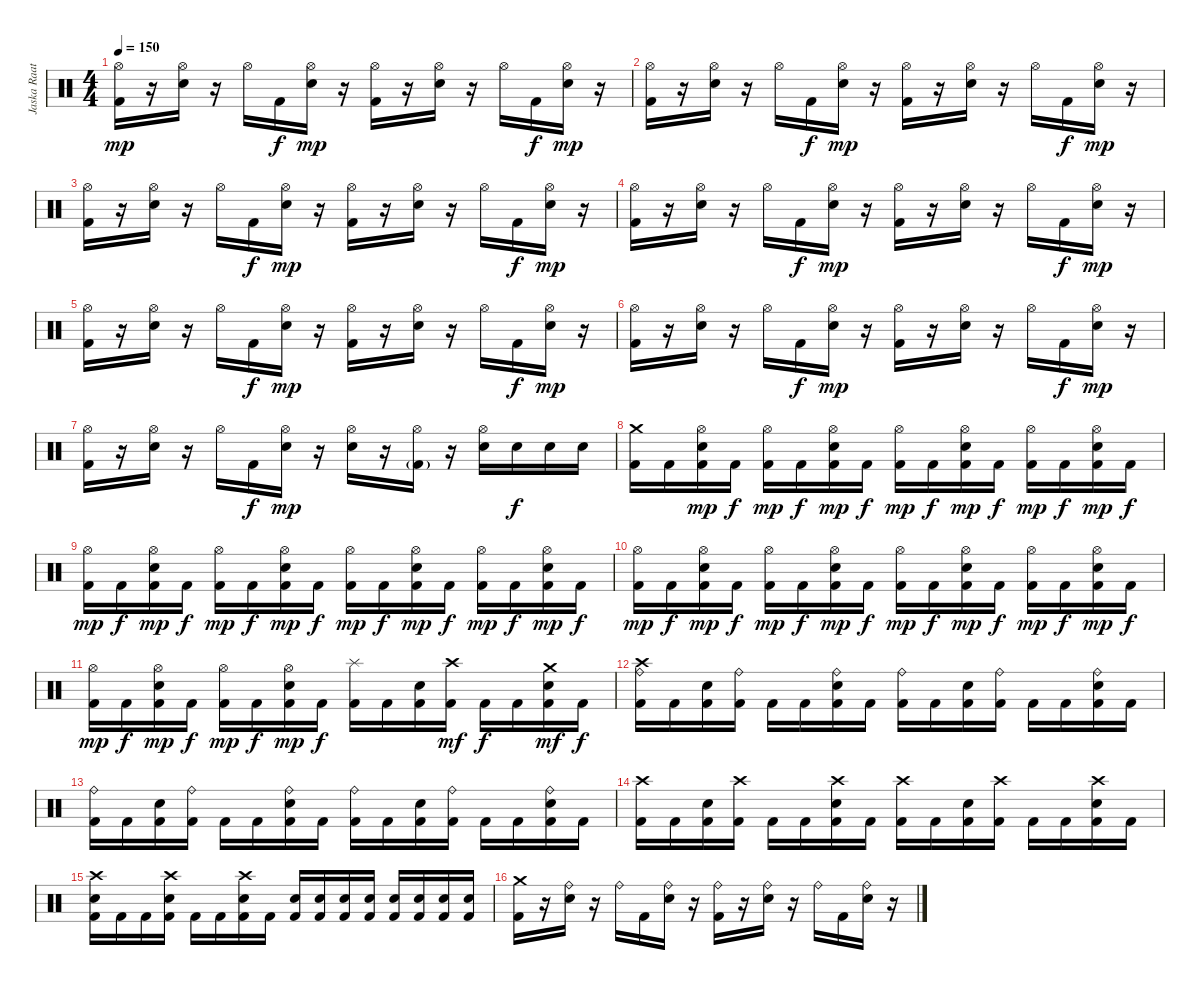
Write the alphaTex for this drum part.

\track ("Jaska Raatikainen" "Jaska Raat") {instrument percussion}
\staff {score}
\articulation defaults
\ts (4 4)
\tempo 150
\clef neutral
\ks c
("Hi-Hat (open)" "Kick (hit) 2").16{dy mp} r.16 ("Hi-Hat (open)" "Electric Snare (hit)").16 r.16 "Hi-Hat (open)".16 "Kick (hit) 2".16{dy f} ("Hi-Hat (open)" "Electric Snare (hit)").16{dy mp} r.16 ("Hi-Hat (open)" "Kick (hit) 2").16 r.16 ("Hi-Hat (open)" "Electric Snare (hit)").16 r.16 "Hi-Hat (open)".16 "Kick (hit) 2".16{dy f} ("Hi-Hat (open)" "Electric Snare (hit)").16{dy mp} r.16 |
("Hi-Hat (open)" "Kick (hit) 2").16 r.16 ("Hi-Hat (open)" "Electric Snare (hit)").16 r.16 "Hi-Hat (open)".16 "Kick (hit) 2".16{dy f} ("Hi-Hat (open)" "Electric Snare (hit)").16{dy mp} r.16 ("Hi-Hat (open)" "Kick (hit) 2").16 r.16 ("Hi-Hat (open)" "Electric Snare (hit)").16 r.16 "Hi-Hat (open)".16 "Kick (hit) 2".16{dy f} ("Hi-Hat (open)" "Electric Snare (hit)").16{dy mp} r.16 |
("Hi-Hat (open)" "Kick (hit) 2").16 r.16 ("Hi-Hat (open)" "Electric Snare (hit)").16 r.16 "Hi-Hat (open)".16 "Kick (hit) 2".16{dy f} ("Hi-Hat (open)" "Electric Snare (hit)").16{dy mp} r.16 ("Hi-Hat (open)" "Kick (hit) 2").16 r.16 ("Hi-Hat (open)" "Electric Snare (hit)").16 r.16 "Hi-Hat (open)".16 "Kick (hit) 2".16{dy f} ("Hi-Hat (open)" "Electric Snare (hit)").16{dy mp} r.16 |
("Hi-Hat (open)" "Kick (hit) 2").16 r.16 ("Hi-Hat (open)" "Electric Snare (hit)").16 r.16 "Hi-Hat (open)".16 "Kick (hit) 2".16{dy f} ("Hi-Hat (open)" "Electric Snare (hit)").16{dy mp} r.16 ("Hi-Hat (open)" "Kick (hit) 2").16 r.16 ("Hi-Hat (open)" "Electric Snare (hit)").16 r.16 "Hi-Hat (open)".16 "Kick (hit) 2".16{dy f} ("Hi-Hat (open)" "Electric Snare (hit)").16{dy mp} r.16 |
("Hi-Hat (open)" "Kick (hit) 2").16 r.16 ("Hi-Hat (open)" "Electric Snare (hit)").16 r.16 "Hi-Hat (open)".16 "Kick (hit) 2".16{dy f} ("Hi-Hat (open)" "Electric Snare (hit)").16{dy mp} r.16 ("Hi-Hat (open)" "Kick (hit) 2").16 r.16 ("Hi-Hat (open)" "Electric Snare (hit)").16 r.16 "Hi-Hat (open)".16 "Kick (hit) 2".16{dy f} ("Hi-Hat (open)" "Electric Snare (hit)").16{dy mp} r.16 |
("Hi-Hat (open)" "Kick (hit) 2").16 r.16 ("Hi-Hat (open)" "Electric Snare (hit)").16 r.16 "Hi-Hat (open)".16 "Kick (hit) 2".16{dy f} ("Hi-Hat (open)" "Electric Snare (hit)").16{dy mp} r.16 ("Hi-Hat (open)" "Kick (hit) 2").16 r.16 ("Hi-Hat (open)" "Electric Snare (hit)").16 r.16 "Hi-Hat (open)".16 "Kick (hit) 2".16{dy f} ("Hi-Hat (open)" "Electric Snare (hit)").16{dy mp} r.16 |
("Hi-Hat (open)" "Kick (hit) 2").16 r.16 ("Hi-Hat (open)" "Electric Snare (hit)").16 r.16 "Hi-Hat (open)".16 "Kick (hit) 2".16{dy f} ("Hi-Hat (open)" "Electric Snare (hit)").16{dy mp} r.16 ("Hi-Hat (open)" "Electric Snare (hit)").16 r.16 ("Hi-Hat (open)" "Kick (hit) 2"{g}).16 r.16 ("Hi-Hat (open)" "Electric Snare (hit)").16 "Electric Snare (hit)".16{dy f} "Electric Snare (hit)".16 "Electric Snare (hit)".16 |
("Crash medium (hit)" "Kick (hit) 2").16 "Kick (hit) 2".16 ("Hi-Hat (open)" "Electric Snare (hit)" "Kick (hit) 2").16{dy mp} "Kick (hit) 2".16{dy f} ("Hi-Hat (open)" "Kick (hit) 2").16{dy mp} "Kick (hit) 2".16{dy f} ("Hi-Hat (open)" "Electric Snare (hit)" "Kick (hit) 2").16{dy mp} "Kick (hit) 2".16{dy f} ("Hi-Hat (open)" "Kick (hit) 2").16{dy mp} "Kick (hit) 2".16{dy f} ("Hi-Hat (open)" "Electric Snare (hit)" "Kick (hit) 2").16{dy mp} "Kick (hit) 2".16{dy f} ("Hi-Hat (open)" "Kick (hit) 2").16{dy mp} "Kick (hit) 2".16{dy f} ("Hi-Hat (open)" "Electric Snare (hit)" "Kick (hit) 2").16{dy mp} "Kick (hit) 2".16{dy f} |
("Hi-Hat (open)" "Kick (hit) 2").16{dy mp} "Kick (hit) 2".16{dy f} ("Hi-Hat (open)" "Electric Snare (hit)" "Kick (hit) 2").16{dy mp} "Kick (hit) 2".16{dy f} ("Hi-Hat (open)" "Kick (hit) 2").16{dy mp} "Kick (hit) 2".16{dy f} ("Hi-Hat (open)" "Electric Snare (hit)" "Kick (hit) 2").16{dy mp} "Kick (hit) 2".16{dy f} ("Hi-Hat (open)" "Kick (hit) 2").16{dy mp} "Kick (hit) 2".16{dy f} ("Hi-Hat (open)" "Electric Snare (hit)" "Kick (hit) 2").16{dy mp} "Kick (hit) 2".16{dy f} ("Hi-Hat (open)" "Kick (hit) 2").16{dy mp} "Kick (hit) 2".16{dy f} ("Hi-Hat (open)" "Electric Snare (hit)" "Kick (hit) 2").16{dy mp} "Kick (hit) 2".16{dy f} |
("Hi-Hat (open)" "Kick (hit) 2").16{dy mp} "Kick (hit) 2".16{dy f} ("Hi-Hat (open)" "Electric Snare (hit)" "Kick (hit) 2").16{dy mp} "Kick (hit) 2".16{dy f} ("Hi-Hat (open)" "Kick (hit) 2").16{dy mp} "Kick (hit) 2".16{dy f} ("Hi-Hat (open)" "Electric Snare (hit)" "Kick (hit) 2").16{dy mp} "Kick (hit) 2".16{dy f} ("Hi-Hat (open)" "Kick (hit) 2").16{dy mp} "Kick (hit) 2".16{dy f} ("Hi-Hat (open)" "Electric Snare (hit)" "Kick (hit) 2").16{dy mp} "Kick (hit) 2".16{dy f} ("Hi-Hat (open)" "Kick (hit) 2").16{dy mp} "Kick (hit) 2".16{dy f} ("Hi-Hat (open)" "Electric Snare (hit)" "Kick (hit) 2").16{dy mp} "Kick (hit) 2".16{dy f} |
("Hi-Hat (open)" "Kick (hit) 2").16{dy mp} "Kick (hit) 2".16{dy f} ("Hi-Hat (open)" "Electric Snare (hit)" "Kick (hit) 2").16{dy mp} "Kick (hit) 2".16{dy f} ("Hi-Hat (open)" "Kick (hit) 2").16{dy mp} "Kick (hit) 2".16{dy f} ("Hi-Hat (open)" "Electric Snare (hit)" "Kick (hit) 2").16{dy mp} "Kick (hit) 2".16{dy f} ("Splash (hit)" "Kick (hit) 2").16 "Kick (hit) 2".16 ("Electric Snare (hit)" "Kick (hit) 2").16 ("Crash high (hit)" "Kick (hit) 2").16{dy mf} "Kick (hit) 2".16{dy f} "Kick (hit) 2".16 ("Crash medium (hit)" "Electric Snare (hit)" "Kick (hit) 2").16{dy mf} "Kick (hit) 2".16{dy f} |
("Crash high (hit)" "Ride (bell)" "Kick (hit) 2").16 "Kick (hit) 2".16 ("Electric Snare (hit)" "Kick (hit) 2").16 ("Ride (bell)" "Kick (hit) 2").16 "Kick (hit) 2".16 "Kick (hit) 2".16 ("Ride (bell)" "Electric Snare (hit)" "Kick (hit) 2").16 "Kick (hit) 2".16 ("Ride (bell)" "Kick (hit) 2").16 "Kick (hit) 2".16 ("Electric Snare (hit)" "Kick (hit) 2").16 ("Ride (bell)" "Kick (hit) 2").16 "Kick (hit) 2".16 "Kick (hit) 2".16 ("Ride (bell)" "Electric Snare (hit)" "Kick (hit) 2").16 "Kick (hit) 2".16 |
("Ride (bell)" "Kick (hit) 2").16 "Kick (hit) 2".16 ("Electric Snare (hit)" "Kick (hit) 2").16 ("Ride (bell)" "Kick (hit) 2").16 "Kick (hit) 2".16 "Kick (hit) 2".16 ("Ride (bell)" "Electric Snare (hit)" "Kick (hit) 2").16 "Kick (hit) 2".16 ("Ride (bell)" "Kick (hit) 2").16 "Kick (hit) 2".16 ("Electric Snare (hit)" "Kick (hit) 2").16 ("Ride (bell)" "Kick (hit) 2").16 "Kick (hit) 2".16 "Kick (hit) 2".16 ("Ride (bell)" "Electric Snare (hit)" "Kick (hit) 2").16 "Kick (hit) 2".16 |
("Crash high (hit)" "Kick (hit) 2").16 "Kick (hit) 2".16 ("Electric Snare (hit)" "Kick (hit) 2").16 ("Crash high (hit)" "Kick (hit) 2").16 "Kick (hit) 2".16 "Kick (hit) 2".16 ("Crash high (hit)" "Electric Snare (hit)" "Kick (hit) 2").16 "Kick (hit) 2".16 ("Crash high (hit)" "Kick (hit) 2").16 "Kick (hit) 2".16 ("Electric Snare (hit)" "Kick (hit) 2").16 ("Crash high (hit)" "Kick (hit) 2").16 "Kick (hit) 2".16 "Kick (hit) 2".16 ("Crash high (hit)" "Electric Snare (hit)" "Kick (hit) 2").16 "Kick (hit) 2".16 |
("Crash high (hit)" "Electric Snare (hit)" "Kick (hit) 2").16 "Kick (hit) 2".16 "Kick (hit) 2".16 ("Crash high (hit)" "Electric Snare (hit)" "Kick (hit) 2").16 "Kick (hit) 2".16 "Kick (hit) 2".16 ("Crash high (hit)" "Electric Snare (hit)" "Kick (hit) 2").16 "Kick (hit) 2".16 ("Electric Snare (hit)" "Kick (hit) 2").16 ("Electric Snare (hit)" "Kick (hit) 2").16 ("Electric Snare (hit)" "Kick (hit) 2").16 ("Electric Snare (hit)" "Kick (hit) 2").16 ("Electric Snare (hit)" "Kick (hit) 2").16 ("Electric Snare (hit)" "Kick (hit) 2").16 ("Electric Snare (hit)" "Kick (hit) 2").16 ("Electric Snare (hit)" "Kick (hit) 2").16 |
("Crash medium (hit)" "Kick (hit) 2").16 r.16 ("Ride (bell)" "Electric Snare (hit)").16 r.16 "Ride (bell)".16 "Kick (hit) 2".16 ("Ride (bell)" "Electric Snare (hit)").16 r.16 ("Ride (bell)" "Kick (hit) 2").16 r.16 ("Ride (bell)" "Electric Snare (hit)").16 r.16 "Ride (bell)".16 "Kick (hit) 2".16 ("Ride (bell)" "Electric Snare (hit)").16 r.16
